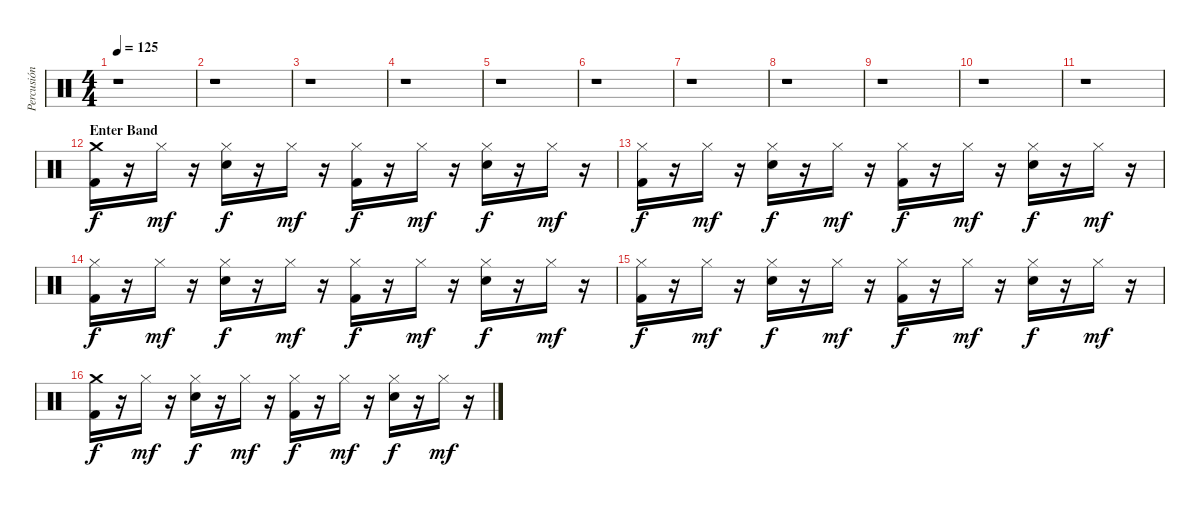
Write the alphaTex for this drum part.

\track ("Percusión" "Percusión") {instrument percussion}
\staff {score}
\articulation defaults
\ts (4 4)
\tempo 125
\clef neutral
\ks c
r.1{dy f} |
r.1 |
r.1 |
r.1 |
r.1 |
r.1 |
r.1 |
r.1 |
r.1 |
r.1 |
r.1 |
\section ("" "Enter Band")
("Crash medium (hit)" "Kick (hit) 2").16 r.16 "Hi-Hat (closed)".16{dy mf} r.16 ("Hi-Hat (closed)" "Electric Snare (hit)").16{dy f} r.16 "Hi-Hat (closed)".16{dy mf} r.16 ("Hi-Hat (closed)" "Kick (hit) 2").16{dy f} r.16 "Hi-Hat (closed)".16{dy mf} r.16 ("Hi-Hat (closed)" "Electric Snare (hit)").16{dy f} r.16 "Hi-Hat (closed)".16{dy mf} r.16 |
("Hi-Hat (closed)" "Kick (hit) 2").16{dy f} r.16 "Hi-Hat (closed)".16{dy mf} r.16 ("Hi-Hat (closed)" "Electric Snare (hit)").16{dy f} r.16 "Hi-Hat (closed)".16{dy mf} r.16 ("Hi-Hat (closed)" "Kick (hit) 2").16{dy f} r.16 "Hi-Hat (closed)".16{dy mf} r.16 ("Hi-Hat (closed)" "Electric Snare (hit)").16{dy f} r.16 "Hi-Hat (closed)".16{dy mf} r.16 |
("Hi-Hat (closed)" "Kick (hit) 2").16{dy f} r.16 "Hi-Hat (closed)".16{dy mf} r.16 ("Hi-Hat (closed)" "Electric Snare (hit)").16{dy f} r.16 "Hi-Hat (closed)".16{dy mf} r.16 ("Hi-Hat (closed)" "Kick (hit) 2").16{dy f} r.16 "Hi-Hat (closed)".16{dy mf} r.16 ("Hi-Hat (closed)" "Electric Snare (hit)").16{dy f} r.16 "Hi-Hat (closed)".16{dy mf} r.16 |
("Hi-Hat (closed)" "Kick (hit) 2").16{dy f} r.16 "Hi-Hat (closed)".16{dy mf} r.16 ("Hi-Hat (closed)" "Electric Snare (hit)").16{dy f} r.16 "Hi-Hat (closed)".16{dy mf} r.16 ("Hi-Hat (closed)" "Kick (hit) 2").16{dy f} r.16 "Hi-Hat (closed)".16{dy mf} r.16 ("Hi-Hat (closed)" "Electric Snare (hit)").16{dy f} r.16 "Hi-Hat (closed)".16{dy mf} r.16 |
("Crash medium (hit)" "Kick (hit) 2").16{dy f} r.16 "Hi-Hat (closed)".16{dy mf} r.16 ("Hi-Hat (closed)" "Electric Snare (hit)").16{dy f} r.16 "Hi-Hat (closed)".16{dy mf} r.16 ("Hi-Hat (closed)" "Kick (hit) 2").16{dy f} r.16 "Hi-Hat (closed)".16{dy mf} r.16 ("Hi-Hat (closed)" "Electric Snare (hit)").16{dy f} r.16 "Hi-Hat (closed)".16{dy mf} r.16
